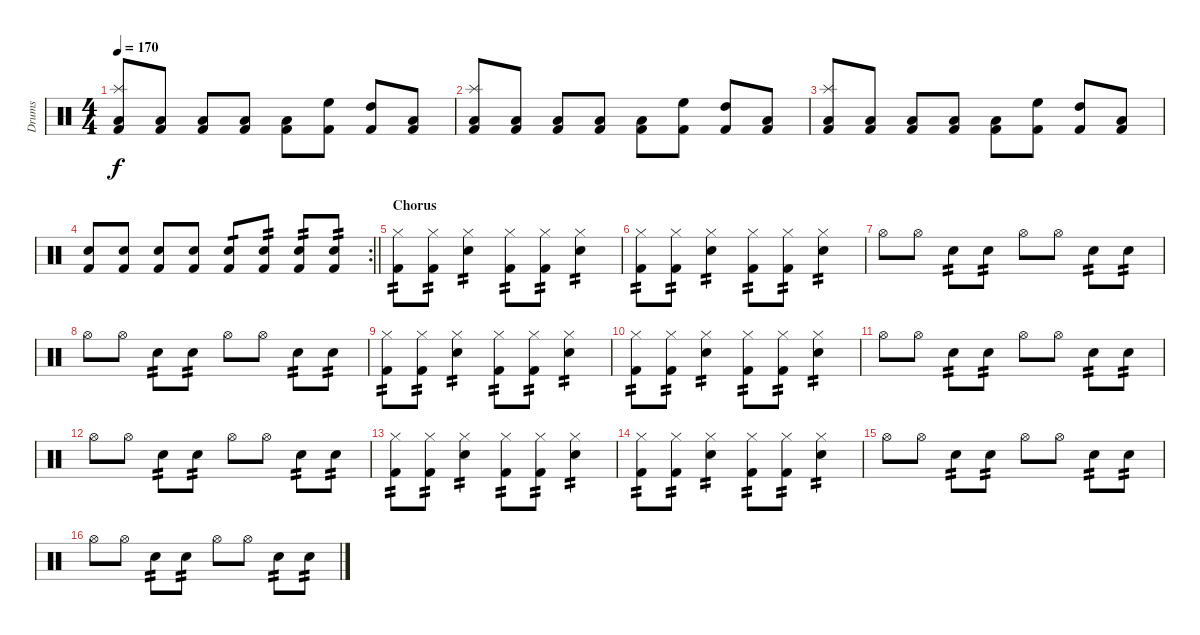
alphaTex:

\track ("Drums" "Drums") {instrument percussion}
\staff {score}
\articulation defaults
\ts (4 4)
\tempo 170
\clef neutral
\ks c
("Low Floor Tom (hit)" "Splash (hit)" "Kick (hit) 2").8{dy f} ("Low Floor Tom (hit)" "Kick (hit) 2").8 ("Low Floor Tom (hit)" "Kick (hit) 2").8 ("Low Floor Tom (hit)" "Kick (hit) 2").8 ("Low Floor Tom (hit)" "Kick (hit) 2").8 ("High Floor Tom (hit)" "Kick (hit) 2").8 ("High Tom (hit)" "Kick (hit) 2").8 ("Low Tom (hit)" "Kick (hit) 2").8 |
("Low Floor Tom (hit)" "Splash (hit)" "Kick (hit) 2").8 ("Low Floor Tom (hit)" "Kick (hit) 2").8 ("Low Floor Tom (hit)" "Kick (hit) 2").8 ("Low Floor Tom (hit)" "Kick (hit) 2").8 ("Low Floor Tom (hit)" "Kick (hit) 2").8 ("High Floor Tom (hit)" "Kick (hit) 2").8 ("High Tom (hit)" "Kick (hit) 2").8 ("Low Tom (hit)" "Kick (hit) 2").8 |
("Low Floor Tom (hit)" "Splash (hit)" "Kick (hit) 2").8 ("Low Floor Tom (hit)" "Kick (hit) 2").8 ("Low Floor Tom (hit)" "Kick (hit) 2").8 ("Low Floor Tom (hit)" "Kick (hit) 2").8 ("Low Floor Tom (hit)" "Kick (hit) 2").8 ("High Floor Tom (hit)" "Kick (hit) 2").8 ("High Tom (hit)" "Kick (hit) 2").8 ("Low Tom (hit)" "Kick (hit) 2").8 |
\rc 2
\barLineRight lightlight
("Snare (hit) 2" "Kick (hit) 2").8 ("Snare (hit) 2" "Kick (hit) 2").8 ("Snare (hit) 2" "Kick (hit) 2").8 ("Snare (hit) 2" "Kick (hit) 2").8 ("Snare (hit) 2" "Kick (hit) 2").8{tp 1} ("Snare (hit) 2" "Kick (hit) 2").8{tp 2} ("Snare (hit) 2" "Kick (hit) 2").8{tp 2} ("Snare (hit) 2" "Kick (hit) 2").8{tp 2} |
\section ("" "Chorus")
("Kick (hit) 2" "Hi-Hat (closed)").8{tp 2} ("Kick (hit) 2" "Hi-Hat (closed)").8{tp 2} ("Snare (hit) 2" "Hi-Hat (closed)").4{tp 2} ("Kick (hit) 2" "Hi-Hat (closed)").8{tp 2} ("Kick (hit) 2" "Hi-Hat (closed)").8{tp 2} ("Snare (hit) 2" "Hi-Hat (closed)").4{tp 2} |
("Kick (hit) 2" "Hi-Hat (closed)").8{tp 2} ("Kick (hit) 2" "Hi-Hat (closed)").8{tp 2} ("Snare (hit) 2" "Hi-Hat (closed)").4{tp 2} ("Kick (hit) 2" "Hi-Hat (closed)").8{tp 2} ("Kick (hit) 2" "Hi-Hat (closed)").8{tp 2} ("Snare (hit) 2" "Hi-Hat (closed)").4{tp 2} |
"Hi-Hat (open)".8 "Hi-Hat (open)".8 "Snare (hit) 2".8{tp 2} "Snare (hit) 2".8{tp 2} "Hi-Hat (open)".8 "Hi-Hat (open)".8 "Snare (hit) 2".8{tp 2} "Snare (hit) 2".8{tp 2} |
"Hi-Hat (open)".8 "Hi-Hat (open)".8 "Snare (hit) 2".8{tp 2} "Snare (hit) 2".8{tp 2} "Hi-Hat (open)".8 "Hi-Hat (open)".8 "Snare (hit) 2".8{tp 2} "Snare (hit) 2".8{tp 2} |
("Kick (hit) 2" "Hi-Hat (closed)").8{tp 2} ("Kick (hit) 2" "Hi-Hat (closed)").8{tp 2} ("Snare (hit) 2" "Hi-Hat (closed)").4{tp 2} ("Kick (hit) 2" "Hi-Hat (closed)").8{tp 2} ("Kick (hit) 2" "Hi-Hat (closed)").8{tp 2} ("Snare (hit) 2" "Hi-Hat (closed)").4{tp 2} |
("Kick (hit) 2" "Hi-Hat (closed)").8{tp 2} ("Kick (hit) 2" "Hi-Hat (closed)").8{tp 2} ("Snare (hit) 2" "Hi-Hat (closed)").4{tp 2} ("Kick (hit) 2" "Hi-Hat (closed)").8{tp 2} ("Kick (hit) 2" "Hi-Hat (closed)").8{tp 2} ("Snare (hit) 2" "Hi-Hat (closed)").4{tp 2} |
"Hi-Hat (open)".8 "Hi-Hat (open)".8 "Snare (hit) 2".8{tp 2} "Snare (hit) 2".8{tp 2} "Hi-Hat (open)".8 "Hi-Hat (open)".8 "Snare (hit) 2".8{tp 2} "Snare (hit) 2".8{tp 2} |
"Hi-Hat (open)".8 "Hi-Hat (open)".8 "Snare (hit) 2".8{tp 2} "Snare (hit) 2".8{tp 2} "Hi-Hat (open)".8 "Hi-Hat (open)".8 "Snare (hit) 2".8{tp 2} "Snare (hit) 2".8{tp 2} |
("Kick (hit) 2" "Hi-Hat (closed)").8{tp 2} ("Kick (hit) 2" "Hi-Hat (closed)").8{tp 2} ("Snare (hit) 2" "Hi-Hat (closed)").4{tp 2} ("Kick (hit) 2" "Hi-Hat (closed)").8{tp 2} ("Kick (hit) 2" "Hi-Hat (closed)").8{tp 2} ("Snare (hit) 2" "Hi-Hat (closed)").4{tp 2} |
("Kick (hit) 2" "Hi-Hat (closed)").8{tp 2} ("Kick (hit) 2" "Hi-Hat (closed)").8{tp 2} ("Snare (hit) 2" "Hi-Hat (closed)").4{tp 2} ("Kick (hit) 2" "Hi-Hat (closed)").8{tp 2} ("Kick (hit) 2" "Hi-Hat (closed)").8{tp 2} ("Snare (hit) 2" "Hi-Hat (closed)").4{tp 2} |
"Hi-Hat (open)".8 "Hi-Hat (open)".8 "Snare (hit) 2".8{tp 2} "Snare (hit) 2".8{tp 2} "Hi-Hat (open)".8 "Hi-Hat (open)".8 "Snare (hit) 2".8{tp 2} "Snare (hit) 2".8{tp 2} |
"Hi-Hat (open)".8 "Hi-Hat (open)".8 "Snare (hit) 2".8{tp 2} "Snare (hit) 2".8{tp 2} "Hi-Hat (open)".8 "Hi-Hat (open)".8 "Snare (hit) 2".8{tp 2} "Snare (hit) 2".8{tp 2}
